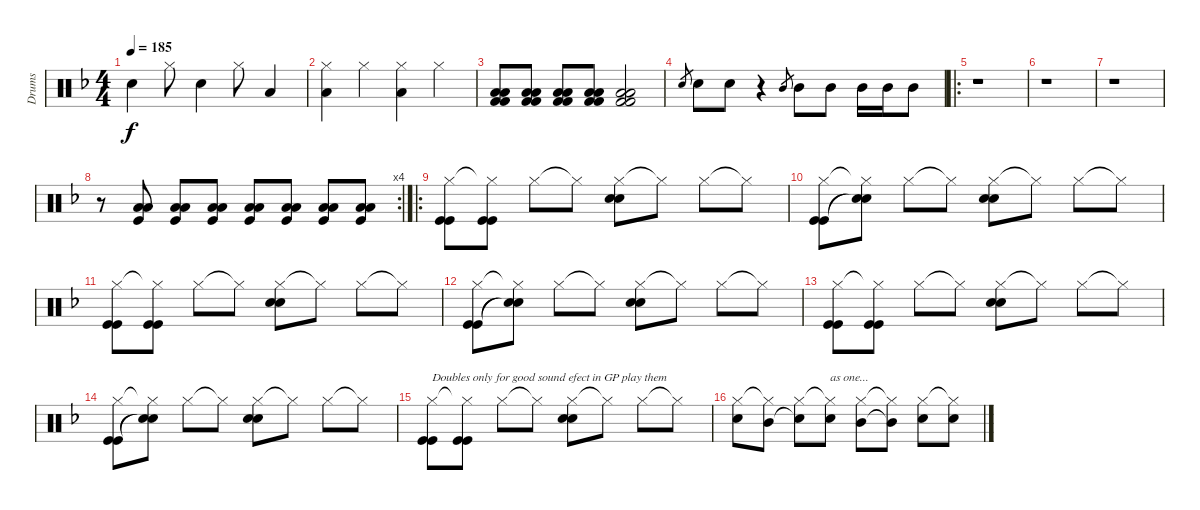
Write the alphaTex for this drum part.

\track ("Drums" "Drums") {instrument percussion}
\staff {score}
\articulation defaults
\ts (4 4)
\tempo 185
\clef neutral
\ks f "Snare (hit) 2".4{dy f} "Hi-Hat (closed)".8 "Snare (hit) 2".4 "Hi-Hat (closed)".8 "Low Floor Tom (hit)".4
|
("Hi-Hat (closed)" "Low Floor Tom (hit)").4 "Hi-Hat (closed)".4 ("Hi-Hat (closed)" "Low Floor Tom (hit)").4 "Hi-Hat (closed)".4 |
("Low Floor Tom (hit)" "Low Floor Tom (hit)" "Kick (hit) 2" "Kick (hit) 2").8 ("Low Floor Tom (hit)" "Low Floor Tom (hit)" "Kick (hit) 2" "Kick (hit) 2").8 ("Low Floor Tom (hit)" "Low Floor Tom (hit)" "Kick (hit) 2" "Kick (hit) 2").8 ("Low Floor Tom (hit)" "Low Floor Tom (hit)" "Kick (hit) 2" "Kick (hit) 2").8 ("Low Floor Tom (hit)" "Low Floor Tom (hit)" "Kick (hit) 2" "Kick (hit) 2").2 |
"Electric Snare (hit)".8{gr} "Electric Snare (hit)".8 "Electric Snare (hit)".8 r.4 "Mid Tom (hit)".8{gr} "Mid Tom (hit)".8 "Mid Tom (hit)".8 "Mid Tom (hit)".16 "Mid Tom (hit)".16 "Mid Tom (hit)".8 |
\ro
r.1 |
r.1 |
r.1 |
\rc 4
r.8 ("Low Floor Tom (hit)" "Low Tom (hit)" "Kick (hit)").8 ("Low Floor Tom (hit)" "Low Tom (hit)" "Kick (hit)").8 ("Low Floor Tom (hit)" "Low Tom (hit)" "Kick (hit)").8 ("Low Floor Tom (hit)" "Low Tom (hit)" "Kick (hit)").8 ("Low Floor Tom (hit)" "Low Tom (hit)" "Kick (hit)").8 ("Low Floor Tom (hit)" "Low Tom (hit)" "Kick (hit)").8 ("Low Floor Tom (hit)" "Low Tom (hit)" "Kick (hit)").8 |
\ro
("Hi-Hat (closed)" "Kick (hit)" "Kick (hit)").8 ("Hi-Hat (closed)"{t} "Kick (hit)" "Kick (hit)").8 "Hi-Hat (closed)".8 "Hi-Hat (closed)"{t}.8 ("Hi-Hat (closed)" "Snare (hit) 2" "Snare (hit) 2").8 "Hi-Hat (closed)"{t}.8 "Hi-Hat (closed)".8 "Hi-Hat (closed)"{t}.8 |
("Hi-Hat (closed)" "Kick (hit)" "Kick (hit)").8 ("Hi-Hat (closed)"{t} "Snare (hit)"{t} "Snare (hit)"{t}).8 "Hi-Hat (closed)".8 "Hi-Hat (closed)"{t}.8 ("Hi-Hat (closed)" "Snare (hit) 2" "Snare (hit) 2").8 "Hi-Hat (closed)"{t}.8 "Hi-Hat (closed)".8 "Hi-Hat (closed)"{t}.8 |
("Hi-Hat (closed)" "Kick (hit)" "Kick (hit)").8 ("Hi-Hat (closed)"{t} "Kick (hit)" "Kick (hit)").8 "Hi-Hat (closed)".8 "Hi-Hat (closed)"{t}.8 ("Hi-Hat (closed)" "Snare (hit) 2" "Snare (hit) 2").8 "Hi-Hat (closed)"{t}.8 "Hi-Hat (closed)".8 "Hi-Hat (closed)"{t}.8 |
("Hi-Hat (closed)" "Kick (hit)" "Kick (hit)").8 ("Hi-Hat (closed)"{t} "Snare (hit)"{t} "Snare (hit)"{t}).8 "Hi-Hat (closed)".8 "Hi-Hat (closed)"{t}.8 ("Hi-Hat (closed)" "Snare (hit) 2" "Snare (hit) 2").8 "Hi-Hat (closed)"{t}.8 "Hi-Hat (closed)".8 "Hi-Hat (closed)"{t}.8 |
("Hi-Hat (closed)" "Kick (hit)" "Kick (hit)").8 ("Hi-Hat (closed)"{t} "Kick (hit)" "Kick (hit)").8 "Hi-Hat (closed)".8 "Hi-Hat (closed)"{t}.8 ("Hi-Hat (closed)" "Snare (hit) 2" "Snare (hit) 2").8 "Hi-Hat (closed)"{t}.8 "Hi-Hat (closed)".8 "Hi-Hat (closed)"{t}.8 |
("Hi-Hat (closed)" "Kick (hit)" "Kick (hit)").8 ("Hi-Hat (closed)"{t} "Snare (hit)"{t} "Snare (hit)"{t}).8 "Hi-Hat (closed)".8 "Hi-Hat (closed)"{t}.8 ("Hi-Hat (closed)" "Snare (hit) 2" "Snare (hit) 2").8 "Hi-Hat (closed)"{t}.8 "Hi-Hat (closed)".8 "Hi-Hat (closed)"{t}.8 |
("Hi-Hat (closed)" "Kick (hit)" "Kick (hit)").8{txt "Doubles only for good sound efect in GP play them"} ("Hi-Hat (closed)"{t} "Kick (hit)" "Kick (hit)").8 "Hi-Hat (closed)".8 "Hi-Hat (closed)"{t}.8 ("Hi-Hat (closed)" "Snare (hit) 2" "Snare (hit) 2").8 "Hi-Hat (closed)"{t}.8 "Hi-Hat (closed)".8 "Hi-Hat (closed)"{t}.8 |
("Hi-Hat (closed)" "Snare (hit) 2").8 ("Hi-Hat (closed)"{t} "Mid Tom (hit)").8 ("Hi-Hat (closed)" "Snare (hit)"{t}).8 ("Hi-Hat (closed)"{t} "Snare (hit) 2").8{txt "as one..."} ("Hi-Hat (closed)" "Mid Tom (hit)").8 ("Hi-Hat (closed)"{t} "Mid Tom (hit)"{t}).8 ("Hi-Hat (closed)" "Snare (hit) 2").8 ("Hi-Hat (closed)"{t} "Snare (hit) 2").8
